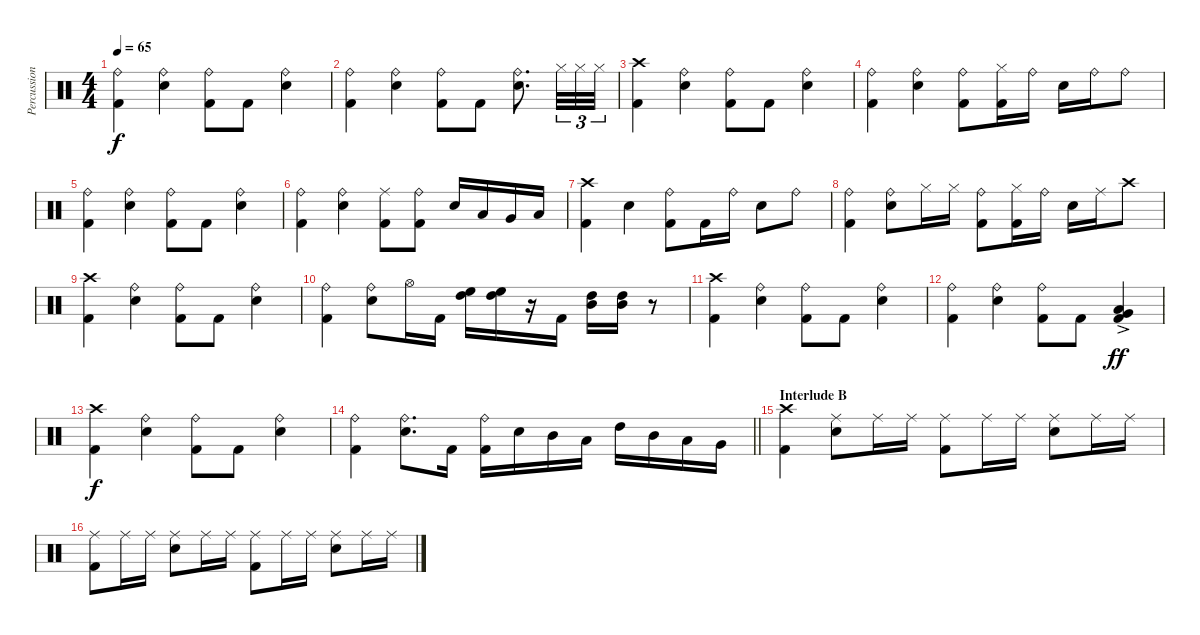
\track ("Percussion" "Percussion") {instrument percussion}
\staff {score}
\articulation defaults
\ts (4 4)
\tempo 65
\clef neutral
\ks c
("Ride (bell)" "Kick (hit) 2").4{dy f} ("Ride (bell)" "Snare (hit) 2").4 ("Ride (bell)" "Kick (hit) 2").8 "Kick (hit) 2".8 ("Ride (bell)" "Snare (hit) 2").4 |
("Ride (bell)" "Kick (hit) 2").4 ("Ride (bell)" "Snare (hit) 2").4 ("Ride (bell)" "Kick (hit) 2").8 "Kick (hit) 2".8 ("Ride (bell)" "Snare (hit) 2").8{d} "Hi-Hat (closed)".32{tu (3 2)} "Hi-Hat (closed)".32{tu (3 2)} "Hi-Hat (closed)".32{tu (3 2)} |
("Crash high (hit)" "Kick (hit) 2").4 ("Ride (bell)" "Snare (hit) 2").4 ("Ride (bell)" "Kick (hit) 2").8 "Kick (hit) 2".8 ("Ride (bell)" "Snare (hit) 2").4 |
("Ride (bell)" "Kick (hit) 2").4 ("Ride (bell)" "Snare (hit) 2").4 ("Ride (bell)" "Kick (hit) 2").8 ("Hi-Hat (closed)" "Kick (hit) 2").16 "Ride (bell)".16 "Snare (hit) 2".16 "Ride (bell)".16 "Ride (bell)".8 |
("Ride (bell)" "Kick (hit) 2").4 ("Ride (bell)" "Snare (hit) 2").4 ("Ride (bell)" "Kick (hit) 2").8 "Kick (hit) 2".8 ("Ride (bell)" "Snare (hit) 2").4 |
("Ride (bell)" "Kick (hit) 2").4 ("Ride (bell)" "Snare (hit) 2").4 ("Ride (middle)" "Kick (hit) 2").8 ("Ride (bell)" "Kick (hit) 2").8 "Snare (hit) 2".16 "Low Tom (hit)".16 "Very Low Tom (hit)".16 "Low Floor Tom (hit)".16 |
("Crash high (hit)" "Kick (hit) 2").4 "Snare (hit) 2".4 ("Ride (bell)" "Kick (hit) 2").8 "Kick (hit) 2".16 "Ride (bell)".16 "Snare (hit) 2".8 "Ride (bell)".8 |
("Ride (bell)" "Kick (hit) 2").4 ("Ride (bell)" "Snare (hit) 2").8 "Hi-Hat (closed)".16 "Hi-Hat (closed)".16 ("Ride (bell)" "Kick (hit) 2").8 ("Hi-Hat (closed)" "Kick (hit) 2").16 "Ride (bell)".16 "Snare (hit) 2".16 "Ride (middle)".16 "Crash high (hit)".8 |
("Crash high (hit)" "Kick (hit) 2").4 ("Ride (bell)" "Snare (hit) 2").4 ("Ride (bell)" "Kick (hit) 2").8 "Kick (hit) 2".8 ("Ride (bell)" "Snare (hit) 2").4 |
("Ride (bell)" "Kick (hit) 2").4 ("Ride (bell)" "Snare (hit) 2").8 "Hi-Hat (open)".16 "Kick (hit) 2".16 ("High Tom (hit)" "High Floor Tom (hit)").16 ("High Tom (hit)" "High Floor Tom (hit)").16 r.16 "Kick (hit) 2".16 ("Mid Tom (hit)" "High Tom (hit)").16 ("Mid Tom (hit)" "High Tom (hit)").16 r.8 |
("Crash high (hit)" "Kick (hit) 2").4 ("Ride (bell)" "Snare (hit) 2").4 ("Ride (bell)" "Kick (hit) 2").8 "Kick (hit) 2".8 ("Ride (bell)" "Snare (hit) 2").4 |
("Ride (bell)" "Kick (hit) 2").4 ("Ride (bell)" "Snare (hit) 2").4 ("Ride (bell)" "Kick (hit) 2").8 "Kick (hit) 2".8 ("Very Low Tom (hit)"{ac} "Low Tom (hit)" "Kick (hit) 2").4{dy ff} |
("Crash high (hit)" "Kick (hit) 2").4{dy f} ("Ride (bell)" "Snare (hit) 2").4 ("Ride (bell)" "Kick (hit) 2").8 "Kick (hit) 2".8 ("Ride (bell)" "Snare (hit) 2").4 |
\barLineRight lightlight
("Ride (bell)" "Kick (hit) 2").4 ("Ride (bell)" "Snare (hit) 2").8{d} "Kick (hit) 2".16 ("Ride (bell)" "Kick (hit) 2").16 "Snare (hit) 2".16 "Mid Tom (hit)".16 "Low Tom (hit)".16 "High Tom (hit)".16 "Mid Tom (hit)".16 "Low Tom (hit)".16 "Very Low Tom (hit)".16 |
\section ("" "Interlude B")
("Crash high (hit)" "Kick (hit) 2").4 ("Ride (middle)" "Snare (hit) 2").8 "Ride (middle)".16 "Ride (middle)".16 ("Ride (middle)" "Kick (hit) 2").8 "Ride (middle)".16 "Ride (middle)".16 ("Ride (middle)" "Snare (hit) 2").8 "Ride (middle)".16 "Ride (middle)".16 |
("Ride (middle)" "Kick (hit) 2").8 "Ride (middle)".16 "Ride (middle)".16 ("Ride (middle)" "Snare (hit) 2").8 "Ride (middle)".16 "Ride (middle)".16 ("Ride (middle)" "Kick (hit) 2").8 "Ride (middle)".16 "Ride (middle)".16 ("Ride (middle)" "Snare (hit) 2").8 "Ride (middle)".16 "Ride (middle)".16
